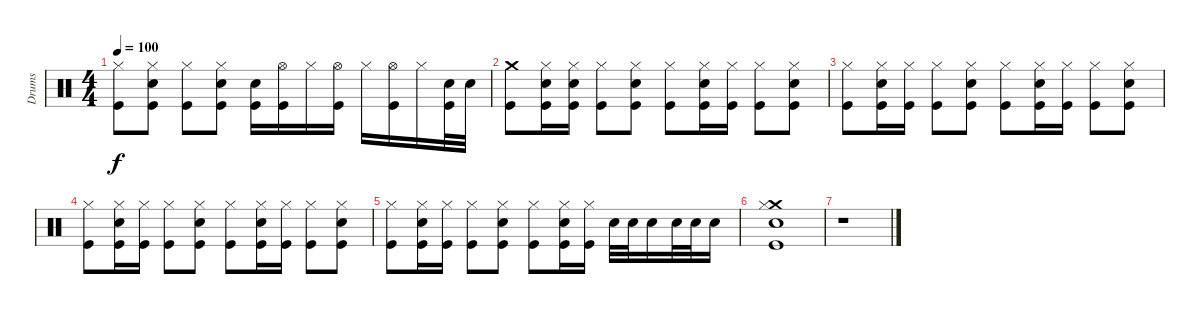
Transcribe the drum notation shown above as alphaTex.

\track ("Drums" "Drums") {instrument percussion}
\staff {score}
\articulation defaults
\ts (4 4)
\tempo 100
\clef neutral
\ks c
("Hi-Hat (closed)" "Kick (hit)").8{dy f} ("Electric Snare (hit)" "Hi-Hat (closed)" "Kick (hit)").8 ("Hi-Hat (closed)" "Kick (hit)").8 ("Electric Snare (hit)" "Hi-Hat (closed)" "Kick (hit)").8 ("Electric Snare (hit)" "Kick (hit)").16 ("Hi-Hat (open)" "Kick (hit)").16 "Hi-Hat (closed)".16 ("Hi-Hat (open)" "Kick (hit)").16 "Hi-Hat (closed)".16 ("Hi-Hat (open)" "Kick (hit)").16 "Hi-Hat (closed)".16 ("Electric Snare (hit)" "Kick (hit)").32 "Electric Snare (hit)".32 |
("Crash medium (hit)" "Kick (hit)").8 ("Electric Snare (hit)" "Hi-Hat (closed)" "Kick (hit)").16 ("Electric Snare (hit)" "Hi-Hat (closed)" "Kick (hit)").16 ("Hi-Hat (closed)" "Kick (hit)").8 ("Electric Snare (hit)" "Hi-Hat (closed)" "Kick (hit)").8 ("Hi-Hat (closed)" "Kick (hit)").8 ("Electric Snare (hit)" "Hi-Hat (closed)" "Kick (hit)").16 ("Hi-Hat (closed)" "Kick (hit)").16 ("Hi-Hat (closed)" "Kick (hit)").8 ("Electric Snare (hit)" "Hi-Hat (closed)" "Kick (hit)").8 |
("Hi-Hat (closed)" "Kick (hit)").8 ("Electric Snare (hit)" "Hi-Hat (closed)" "Kick (hit)").16 ("Hi-Hat (closed)" "Kick (hit)").16 ("Hi-Hat (closed)" "Kick (hit)").8 ("Electric Snare (hit)" "Hi-Hat (closed)" "Kick (hit)").8 ("Hi-Hat (closed)" "Kick (hit)").8 ("Electric Snare (hit)" "Hi-Hat (closed)" "Kick (hit)").16 ("Hi-Hat (closed)" "Kick (hit)").16 ("Hi-Hat (closed)" "Kick (hit)").8 ("Electric Snare (hit)" "Hi-Hat (closed)" "Kick (hit)").8 |
("Hi-Hat (closed)" "Kick (hit)").8 ("Electric Snare (hit)" "Hi-Hat (closed)" "Kick (hit)").16 ("Hi-Hat (closed)" "Kick (hit)").16 ("Hi-Hat (closed)" "Kick (hit)").8 ("Electric Snare (hit)" "Hi-Hat (closed)" "Kick (hit)").8 ("Hi-Hat (closed)" "Kick (hit)").8 ("Electric Snare (hit)" "Hi-Hat (closed)" "Kick (hit)").16 ("Hi-Hat (closed)" "Kick (hit)").16 ("Hi-Hat (closed)" "Kick (hit)").8 ("Electric Snare (hit)" "Hi-Hat (closed)" "Kick (hit)").8 |
("Hi-Hat (closed)" "Kick (hit)").8 ("Electric Snare (hit)" "Hi-Hat (closed)" "Kick (hit)").16 ("Hi-Hat (closed)" "Kick (hit)").16 ("Hi-Hat (closed)" "Kick (hit)").8 ("Electric Snare (hit)" "Hi-Hat (closed)" "Kick (hit)").8 ("Hi-Hat (closed)" "Kick (hit)").8 ("Electric Snare (hit)" "Hi-Hat (closed)" "Kick (hit)").16 ("Hi-Hat (closed)" "Kick (hit)").16 "Electric Snare (hit)".32 "Electric Snare (hit)".32 "Electric Snare (hit)".16 "Electric Snare (hit)".32 "Electric Snare (hit)".32 "Electric Snare (hit)".16 |
("Crash medium (hit)" "Electric Snare (hit)" "Hi-Hat (closed)" "Kick (hit)").1 |
r.1
